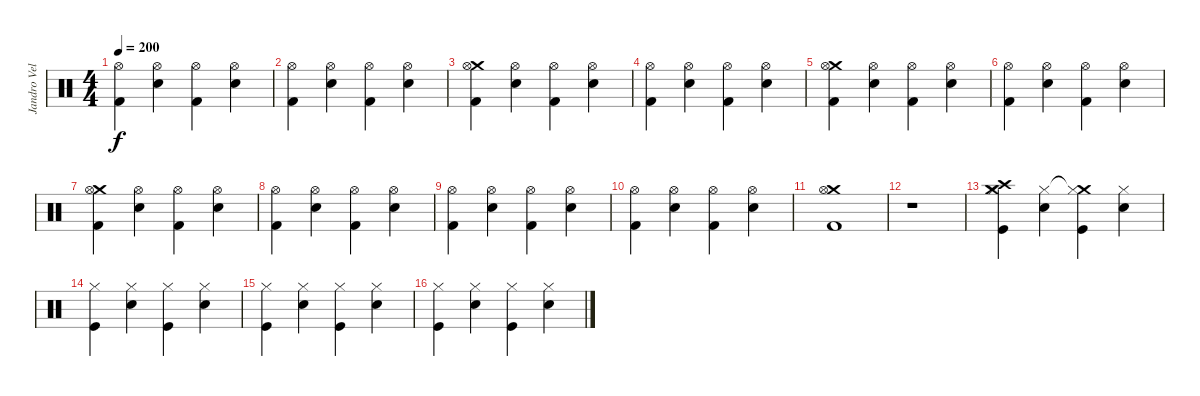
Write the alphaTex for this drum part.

\track ("Jandro Velázquez" "Jandro Vel") {instrument percussion}
\staff {score}
\articulation defaults
\ts (4 4)
\tempo 200
\clef neutral
\ks c
("Hi-Hat (open)" "Kick (hit) 2").4{dy f} ("Hi-Hat (open)" "Snare (hit) 2").4 ("Hi-Hat (open)" "Kick (hit) 2").4 ("Hi-Hat (open)" "Snare (hit) 2").4 |
("Hi-Hat (open)" "Kick (hit) 2").4 ("Hi-Hat (open)" "Snare (hit) 2").4 ("Hi-Hat (open)" "Kick (hit) 2").4 ("Hi-Hat (open)" "Snare (hit) 2").4 |
("Crash medium (hit)" "Hi-Hat (open)" "Kick (hit) 2").4 ("Hi-Hat (open)" "Snare (hit) 2").4 ("Hi-Hat (open)" "Kick (hit) 2").4 ("Hi-Hat (open)" "Snare (hit) 2").4 |
("Hi-Hat (open)" "Kick (hit) 2").4 ("Hi-Hat (open)" "Snare (hit) 2").4 ("Hi-Hat (open)" "Kick (hit) 2").4 ("Hi-Hat (open)" "Snare (hit) 2").4 |
("Crash medium (hit)" "Hi-Hat (open)" "Kick (hit) 2").4 ("Hi-Hat (open)" "Snare (hit) 2").4 ("Hi-Hat (open)" "Kick (hit) 2").4 ("Hi-Hat (open)" "Snare (hit) 2").4 |
("Hi-Hat (open)" "Kick (hit) 2").4 ("Hi-Hat (open)" "Snare (hit) 2").4 ("Hi-Hat (open)" "Kick (hit) 2").4 ("Hi-Hat (open)" "Snare (hit) 2").4 |
("Crash medium (hit)" "Hi-Hat (open)" "Kick (hit) 2").4 ("Hi-Hat (open)" "Snare (hit) 2").4 ("Hi-Hat (open)" "Kick (hit) 2").4 ("Hi-Hat (open)" "Snare (hit) 2").4 |
("Hi-Hat (open)" "Kick (hit) 2").4 ("Hi-Hat (open)" "Snare (hit) 2").4 ("Hi-Hat (open)" "Kick (hit) 2").4 ("Hi-Hat (open)" "Snare (hit) 2").4 |
("Hi-Hat (open)" "Kick (hit) 2").4 ("Hi-Hat (open)" "Snare (hit) 2").4 ("Hi-Hat (open)" "Kick (hit) 2").4 ("Hi-Hat (open)" "Snare (hit) 2").4 |
("Hi-Hat (open)" "Kick (hit) 2").4 ("Hi-Hat (open)" "Snare (hit) 2").4 ("Hi-Hat (open)" "Kick (hit) 2").4 ("Hi-Hat (open)" "Snare (hit) 2").4 |
("Crash medium (hit)" "Hi-Hat (open)" "Kick (hit) 2").1 |
r.1 |
("Crash high (hit)" "Crash medium (hit)" "Hi-Hat (closed)" "Kick (hit)").4 ("Hi-Hat (closed)" "Snare (hit) 2").4 ("Crash medium (hit)"{t} "Hi-Hat (closed)" "Kick (hit)").4 ("Hi-Hat (closed)" "Snare (hit) 2").4 |
("Hi-Hat (closed)" "Kick (hit)").4 ("Hi-Hat (closed)" "Snare (hit) 2").4 ("Hi-Hat (closed)" "Kick (hit)").4 ("Hi-Hat (closed)" "Snare (hit) 2").4 |
("Hi-Hat (closed)" "Kick (hit)").4 ("Hi-Hat (closed)" "Snare (hit) 2").4 ("Hi-Hat (closed)" "Kick (hit)").4 ("Hi-Hat (closed)" "Snare (hit) 2").4 |
("Hi-Hat (closed)" "Kick (hit)").4 ("Hi-Hat (closed)" "Snare (hit) 2").4 ("Hi-Hat (closed)" "Kick (hit)").4 ("Hi-Hat (closed)" "Snare (hit) 2").4
